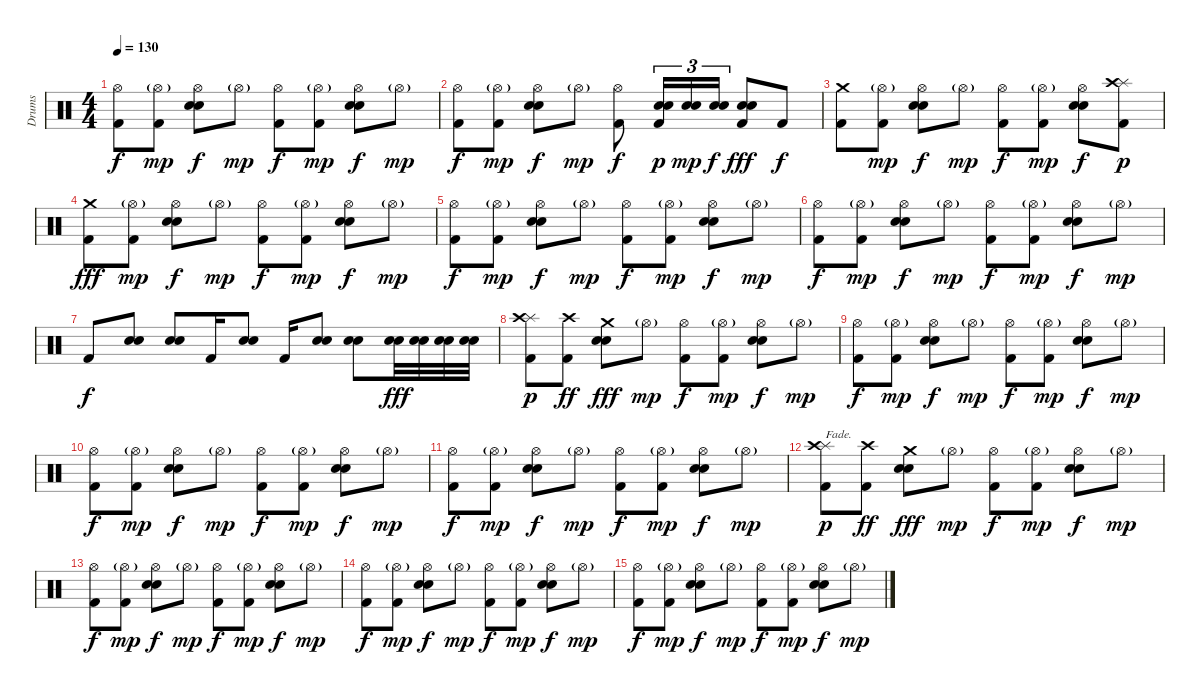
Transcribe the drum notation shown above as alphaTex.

\track ("Drums" "Drums") {instrument percussion}
\staff {score}
\articulation defaults
\ts (4 4)
\tempo 130
\clef neutral
\ks c
("Hi-Hat (open)" "Kick (hit) 2").8{dy f} ("Hi-Hat (open)"{g} "Kick (hit) 2").8{dy mp} ("Hi-Hat (open)" "Snare (hit) 2" "Electric Snare (hit)").8{dy f} "Hi-Hat (open)"{g}.8{dy mp} ("Hi-Hat (open)" "Kick (hit) 2").8{dy f} ("Hi-Hat (open)"{g} "Kick (hit) 2").8{dy mp} ("Hi-Hat (open)" "Snare (hit) 2" "Electric Snare (hit)").8{dy f} "Hi-Hat (open)"{g}.8{dy mp} |
("Hi-Hat (open)" "Kick (hit) 2").8{dy f} ("Hi-Hat (open)"{g} "Kick (hit) 2").8{dy mp} ("Hi-Hat (open)" "Snare (hit) 2" "Electric Snare (hit)").8{dy f} "Hi-Hat (open)"{g}.8{dy mp} ("Hi-Hat (open)" "Kick (hit) 2").8{dy f} ("Snare (hit) 2" "Electric Snare (hit)" "Kick (hit) 2").16{tu (3 2) dy p} ("Snare (hit) 2" "Electric Snare (hit)").16{tu (3 2) dy mp} ("Snare (hit) 2" "Electric Snare (hit)").16{tu (3 2) dy f} ("Snare (hit) 2" "Electric Snare (hit)" "Kick (hit) 2").8{dy fff} "Kick (hit) 2".8{dy f} |
("Crash medium (hit)" "Kick (hit) 2").8 ("Hi-Hat (open)"{g} "Kick (hit) 2").8{dy mp} ("Hi-Hat (open)" "Snare (hit) 2" "Electric Snare (hit)").8{dy f} "Hi-Hat (open)"{g}.8{dy mp} ("Hi-Hat (open)" "Kick (hit) 2").8{dy f} ("Hi-Hat (open)"{g} "Kick (hit) 2").8{dy mp} ("Hi-Hat (open)" "Snare (hit) 2" "Electric Snare (hit)").8{dy f} ("Splash (hit)" "Crash high (hit)" "Kick (hit) 2").8{dy p} |
("Crash medium (hit)" "Kick (hit) 2").8{dy fff} ("Hi-Hat (open)"{g} "Kick (hit) 2").8{dy mp} ("Hi-Hat (open)" "Snare (hit) 2" "Electric Snare (hit)").8{dy f} "Hi-Hat (open)"{g}.8{dy mp} ("Hi-Hat (open)" "Kick (hit) 2").8{dy f} ("Hi-Hat (open)"{g} "Kick (hit) 2").8{dy mp} ("Hi-Hat (open)" "Snare (hit) 2" "Electric Snare (hit)").8{dy f} "Hi-Hat (open)"{g}.8{dy mp} |
("Hi-Hat (open)" "Kick (hit) 2").8{dy f} ("Hi-Hat (open)"{g} "Kick (hit) 2").8{dy mp} ("Hi-Hat (open)" "Snare (hit) 2" "Electric Snare (hit)").8{dy f} "Hi-Hat (open)"{g}.8{dy mp} ("Hi-Hat (open)" "Kick (hit) 2").8{dy f} ("Hi-Hat (open)"{g} "Kick (hit) 2").8{dy mp} ("Hi-Hat (open)" "Snare (hit) 2" "Electric Snare (hit)").8{dy f} "Hi-Hat (open)"{g}.8{dy mp} |
("Hi-Hat (open)" "Kick (hit) 2").8{dy f} ("Hi-Hat (open)"{g} "Kick (hit) 2").8{dy mp} ("Hi-Hat (open)" "Snare (hit) 2" "Electric Snare (hit)").8{dy f} "Hi-Hat (open)"{g}.8{dy mp} ("Hi-Hat (open)" "Kick (hit) 2").8{dy f} ("Hi-Hat (open)"{g} "Kick (hit) 2").8{dy mp} ("Hi-Hat (open)" "Snare (hit) 2" "Electric Snare (hit)").8{dy f} "Hi-Hat (open)"{g}.8{dy mp} |
"Kick (hit) 2".8{dy f} ("Snare (hit) 2" "Electric Snare (hit)").8 ("Snare (hit) 2" "Electric Snare (hit)").8 "Kick (hit) 2".16 ("Snare (hit) 2" "Electric Snare (hit)").8 "Kick (hit) 2".16 ("Snare (hit) 2" "Electric Snare (hit)").8 ("Snare (hit) 2" "Electric Snare (hit)").8 ("Snare (hit) 2" "Electric Snare (hit)").32{dy fff} ("Snare (hit) 2" "Electric Snare (hit)").32 ("Snare (hit) 2" "Electric Snare (hit)").32 ("Snare (hit) 2" "Electric Snare (hit)").32 |
("Splash (hit)" "Crash high (hit)" "Kick (hit) 2").8{dy p} ("Crash high (hit)" "Kick (hit) 2").8{dy ff} ("Crash medium (hit)" "Snare (hit) 2" "Electric Snare (hit)").8{dy fff} "Hi-Hat (open)"{g}.8{dy mp} ("Hi-Hat (open)" "Kick (hit) 2").8{dy f} ("Hi-Hat (open)"{g} "Kick (hit) 2").8{dy mp} ("Hi-Hat (open)" "Snare (hit) 2" "Electric Snare (hit)").8{dy f} "Hi-Hat (open)"{g}.8{dy mp} |
("Hi-Hat (open)" "Kick (hit) 2").8{dy f} ("Hi-Hat (open)"{g} "Kick (hit) 2").8{dy mp} ("Hi-Hat (open)" "Snare (hit) 2" "Electric Snare (hit)").8{dy f} "Hi-Hat (open)"{g}.8{dy mp} ("Hi-Hat (open)" "Kick (hit) 2").8{dy f} ("Hi-Hat (open)"{g} "Kick (hit) 2").8{dy mp} ("Hi-Hat (open)" "Snare (hit) 2" "Electric Snare (hit)").8{dy f} "Hi-Hat (open)"{g}.8{dy mp} |
("Hi-Hat (open)" "Kick (hit) 2").8{dy f} ("Hi-Hat (open)"{g} "Kick (hit) 2").8{dy mp} ("Hi-Hat (open)" "Snare (hit) 2" "Electric Snare (hit)").8{dy f} "Hi-Hat (open)"{g}.8{dy mp} ("Hi-Hat (open)" "Kick (hit) 2").8{dy f} ("Hi-Hat (open)"{g} "Kick (hit) 2").8{dy mp} ("Hi-Hat (open)" "Snare (hit) 2" "Electric Snare (hit)").8{dy f} "Hi-Hat (open)"{g}.8{dy mp} |
("Hi-Hat (open)" "Kick (hit) 2").8{dy f} ("Hi-Hat (open)"{g} "Kick (hit) 2").8{dy mp} ("Hi-Hat (open)" "Snare (hit) 2" "Electric Snare (hit)").8{dy f} "Hi-Hat (open)"{g}.8{dy mp} ("Hi-Hat (open)" "Kick (hit) 2").8{dy f} ("Hi-Hat (open)"{g} "Kick (hit) 2").8{dy mp} ("Hi-Hat (open)" "Snare (hit) 2" "Electric Snare (hit)").8{dy f} "Hi-Hat (open)"{g}.8{dy mp} |
("Splash (hit)" "Crash high (hit)" "Kick (hit) 2").8{txt "Fade." dy p volume 0} ("Crash high (hit)" "Kick (hit) 2").8{dy ff} ("Crash medium (hit)" "Snare (hit) 2" "Electric Snare (hit)").8{dy fff} "Hi-Hat (open)"{g}.8{dy mp} ("Hi-Hat (open)" "Kick (hit) 2").8{dy f} ("Hi-Hat (open)"{g} "Kick (hit) 2").8{dy mp} ("Hi-Hat (open)" "Snare (hit) 2" "Electric Snare (hit)").8{dy f} "Hi-Hat (open)"{g}.8{dy mp} |
("Hi-Hat (open)" "Kick (hit) 2").8{dy f} ("Hi-Hat (open)"{g} "Kick (hit) 2").8{dy mp} ("Hi-Hat (open)" "Snare (hit) 2" "Electric Snare (hit)").8{dy f} "Hi-Hat (open)"{g}.8{dy mp} ("Hi-Hat (open)" "Kick (hit) 2").8{dy f} ("Hi-Hat (open)"{g} "Kick (hit) 2").8{dy mp} ("Hi-Hat (open)" "Snare (hit) 2" "Electric Snare (hit)").8{dy f} "Hi-Hat (open)"{g}.8{dy mp} |
("Hi-Hat (open)" "Kick (hit) 2").8{dy f} ("Hi-Hat (open)"{g} "Kick (hit) 2").8{dy mp} ("Hi-Hat (open)" "Snare (hit) 2" "Electric Snare (hit)").8{dy f} "Hi-Hat (open)"{g}.8{dy mp} ("Hi-Hat (open)" "Kick (hit) 2").8{dy f} ("Hi-Hat (open)"{g} "Kick (hit) 2").8{dy mp} ("Hi-Hat (open)" "Snare (hit) 2" "Electric Snare (hit)").8{dy f} "Hi-Hat (open)"{g}.8{dy mp} |
("Hi-Hat (open)" "Kick (hit) 2").8{dy f} ("Hi-Hat (open)"{g} "Kick (hit) 2").8{dy mp} ("Hi-Hat (open)" "Snare (hit) 2" "Electric Snare (hit)").8{dy f} "Hi-Hat (open)"{g}.8{dy mp} ("Hi-Hat (open)" "Kick (hit) 2").8{dy f} ("Hi-Hat (open)"{g} "Kick (hit) 2").8{dy mp} ("Hi-Hat (open)" "Snare (hit) 2" "Electric Snare (hit)").8{dy f} "Hi-Hat (open)"{g}.8{dy mp}
